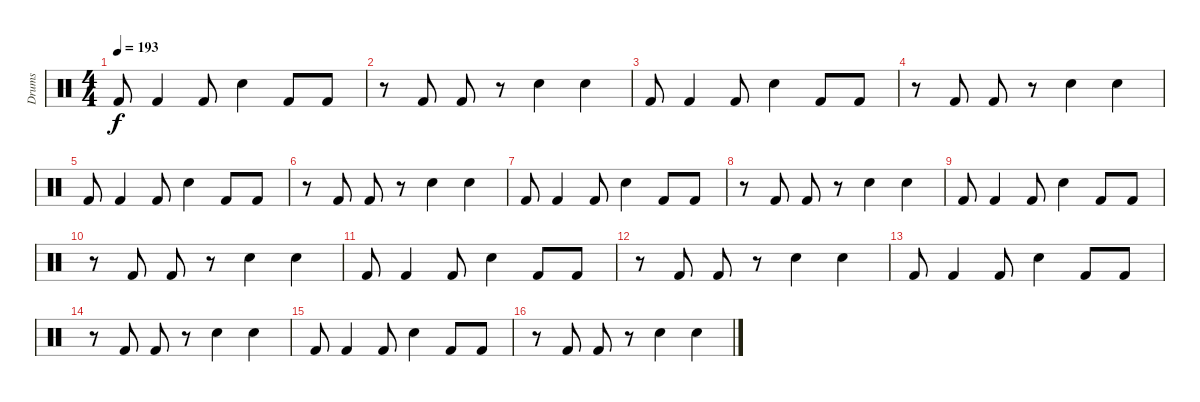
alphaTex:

\track ("Drums" "Drums") {instrument percussion}
\staff {score}
\articulation defaults
\ts (4 4)
\tempo 193
\clef neutral
\ks c "Kick (hit) 2".8{dy f} "Kick (hit) 2".4 "Kick (hit) 2".8 "Snare (hit) 2".4 "Kick (hit) 2".8 "Kick (hit) 2".8
|
r.8 "Kick (hit) 2".8 "Kick (hit) 2".8 r.8 "Snare (hit) 2".4 "Snare (hit) 2".4 |
"Kick (hit) 2".8 "Kick (hit) 2".4 "Kick (hit) 2".8 "Snare (hit) 2".4 "Kick (hit) 2".8 "Kick (hit) 2".8 |
r.8 "Kick (hit) 2".8 "Kick (hit) 2".8 r.8 "Snare (hit) 2".4 "Snare (hit) 2".4 |
"Kick (hit) 2".8 "Kick (hit) 2".4 "Kick (hit) 2".8 "Snare (hit) 2".4 "Kick (hit) 2".8 "Kick (hit) 2".8 |
r.8 "Kick (hit) 2".8 "Kick (hit) 2".8 r.8 "Snare (hit) 2".4 "Snare (hit) 2".4 |
"Kick (hit) 2".8 "Kick (hit) 2".4 "Kick (hit) 2".8 "Snare (hit) 2".4 "Kick (hit) 2".8 "Kick (hit) 2".8 |
r.8 "Kick (hit) 2".8 "Kick (hit) 2".8 r.8 "Snare (hit) 2".4 "Snare (hit) 2".4 |
"Kick (hit) 2".8 "Kick (hit) 2".4 "Kick (hit) 2".8 "Snare (hit) 2".4 "Kick (hit) 2".8 "Kick (hit) 2".8 |
r.8 "Kick (hit) 2".8 "Kick (hit) 2".8 r.8 "Snare (hit) 2".4 "Snare (hit) 2".4 |
"Kick (hit) 2".8 "Kick (hit) 2".4 "Kick (hit) 2".8 "Snare (hit) 2".4 "Kick (hit) 2".8 "Kick (hit) 2".8 |
r.8 "Kick (hit) 2".8 "Kick (hit) 2".8 r.8 "Snare (hit) 2".4 "Snare (hit) 2".4 |
"Kick (hit) 2".8 "Kick (hit) 2".4 "Kick (hit) 2".8 "Snare (hit) 2".4 "Kick (hit) 2".8 "Kick (hit) 2".8 |
r.8 "Kick (hit) 2".8 "Kick (hit) 2".8 r.8 "Snare (hit) 2".4 "Snare (hit) 2".4 |
"Kick (hit) 2".8 "Kick (hit) 2".4 "Kick (hit) 2".8 "Snare (hit) 2".4 "Kick (hit) 2".8 "Kick (hit) 2".8 |
r.8 "Kick (hit) 2".8 "Kick (hit) 2".8 r.8 "Snare (hit) 2".4 "Snare (hit) 2".4
